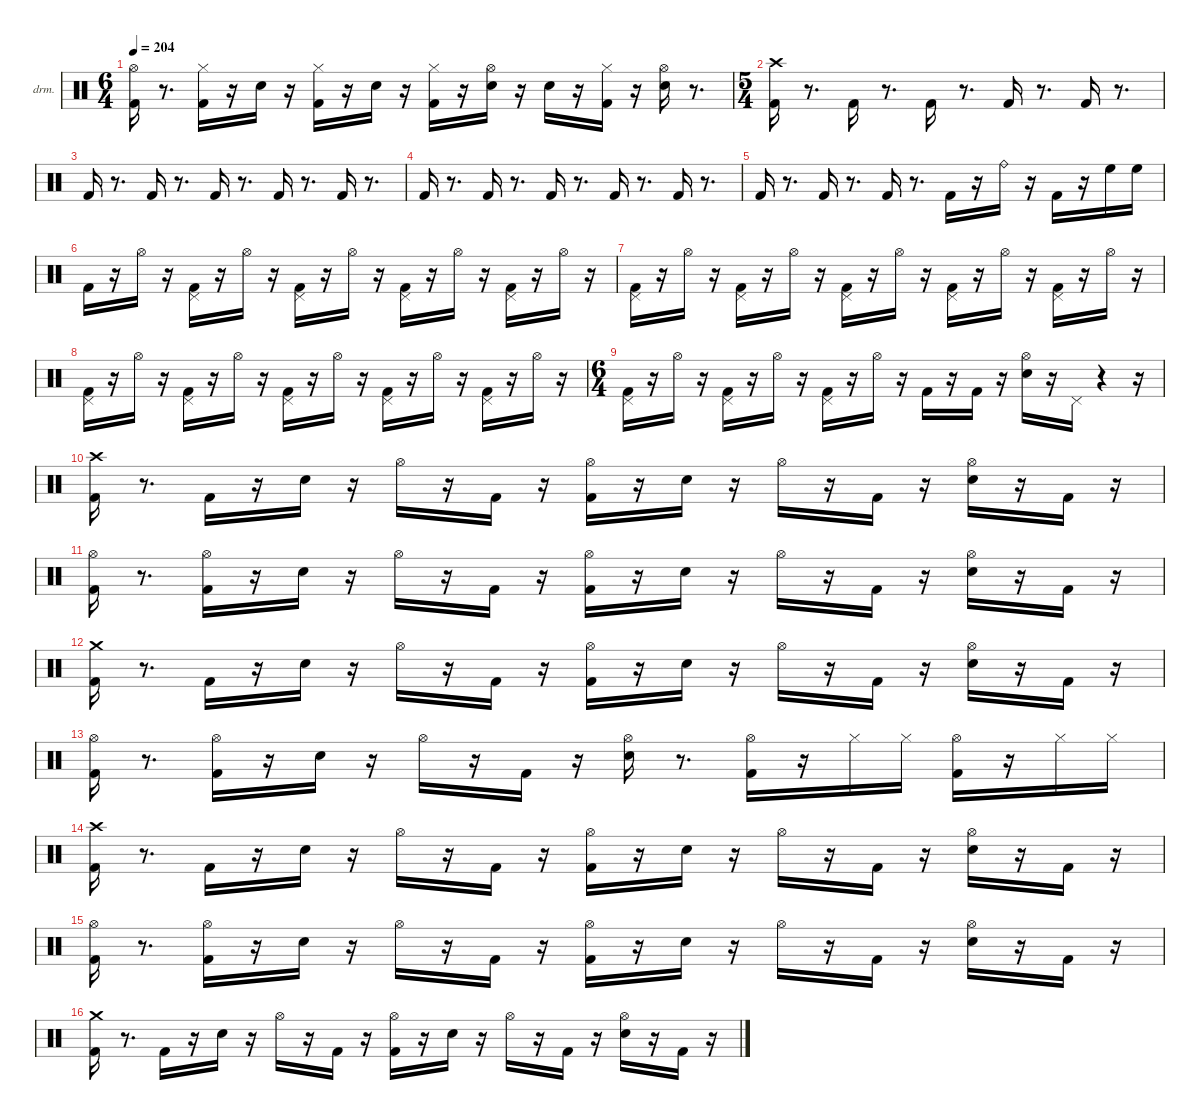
\hideDynamics
\bracketExtendMode nobrackets
\firstSystemTrackNameOrientation horizontal
\track ("drums" "drm.") {instrument percussion}
\staff {score}
\articulation defaults
\ts (6 4)
\tempo 204
\clef neutral
\ks aminor
("Kick (hit) 2" "Hi-Hat (open)"{acc #}).16{dy ff beam Down} r.8{d beam Down} ("Kick (hit) 2" "Hi-Hat (closed)"{acc #}).16{beam Down} r.16{beam Down} "Snare (hit) 2".16{dy f beam Down} r.16{beam Down} ("Kick (hit) 2" "Hi-Hat (closed)"{acc #}).16{dy ff beam Down} r.16{beam Down} "Snare (hit) 2".16{beam Down} r.16{beam Down} ("Kick (hit) 2" "Hi-Hat (closed)"{acc #}).16{beam Down} r.16{beam Down} ("Snare (hit) 2" "Hi-Hat (open)"{acc #}).16{beam Down} r.16{beam Down} "Snare (hit) 2".16{dy mf beam Down} r.16{beam Down} ("Kick (hit) 2" "Hi-Hat (closed)"{acc #}).16{dy ff beam Down} r.16{beam Down} ("Snare (hit) 2" "Hi-Hat (open)"{acc #}).16{beam Down} r.8{d beam Down} |
\ts (5 4)
("Kick (hit) 2" "Crash high (hit)"{acc #}).16{dy fff beam Down} r.8{d beam Down} "Kick (hit) 2".16{dy mp beam Down} r.8{d beam Down} "Kick (hit) 2".16{dy mf beam Down} r.8{d beam Down} "Kick (hit) 2".16{dy f beam Up} r.8{d beam Up} "Kick (hit) 2".16{dy p beam Up} r.8{d beam Down} |
"Kick (hit) 2".16{dy fff beam Up} r.8{d beam Up} "Kick (hit) 2".16{dy mp beam Up} r.8{d beam Up} "Kick (hit) 2".16{dy mf beam Up} r.8{d beam Down} "Kick (hit) 2".16{dy f beam Up} r.8{d beam Up} "Kick (hit) 2".16{dy p beam Up} r.8{d beam Down} |
"Kick (hit) 2".16{dy fff beam Up} r.8{d beam Up} "Kick (hit) 2".16{dy mp beam Up} r.8{d beam Up} "Kick (hit) 2".16{dy mf beam Up} r.8{d beam Down} "Kick (hit) 2".16{dy f beam Up} r.8{d beam Up} "Kick (hit) 2".16{dy p beam Up} r.8{d beam Down} |
"Kick (hit) 2".16{dy fff beam Up} r.8{d beam Up} "Kick (hit) 2".16{dy mp beam Up} r.8{d beam Up} "Kick (hit) 2".16{dy mf beam Up} r.8{d beam Down} "Kick (hit) 2".16{dy f beam Down} r.16{beam Down} "Ride (bell)".16{dy ff beam Down} r.16{beam Down} "Kick (hit) 2".16{dy p beam Down} r.16{beam Down} "High Floor Tom (hit)".16{dy ff beam Down} "High Floor Tom (hit)".16{dy mf beam Down} |
"Kick (hit) 2".16{dy fff beam Down} r.16{beam Down} "Hi-Hat (open)"{acc #}.16{beam Down} r.16{beam Down} ("Kick (hit) 2" "Pedal Hi-Hat (hit)"{acc #}).16{dy mp beam Down} r.16{beam Down} "Hi-Hat (open)"{acc #}.16{dy fff beam Down} r.16{beam Down} ("Kick (hit) 2" "Pedal Hi-Hat (hit)"{acc #}).16{dy mf beam Down} r.16{beam Down} "Hi-Hat (open)"{acc #}.16{dy fff beam Down} r.16{beam Down} ("Kick (hit) 2" "Pedal Hi-Hat (hit)"{acc #}).16{dy f beam Down} r.16{beam Down} "Hi-Hat (open)"{acc #}.16{dy fff beam Down} r.16{beam Down} ("Kick (hit) 2" "Pedal Hi-Hat (hit)"{acc #}).16{dy p beam Down} r.16{beam Down} "Hi-Hat (open)"{acc #}.16{dy fff beam Down} r.16{beam Down} |
("Kick (hit) 2" "Pedal Hi-Hat (hit)"{acc #}).16{beam Down} r.16{beam Down} "Hi-Hat (open)"{acc #}.16{beam Down} r.16{beam Down} ("Kick (hit) 2" "Pedal Hi-Hat (hit)"{acc #}).16{dy mp beam Down} r.16{beam Down} "Hi-Hat (open)"{acc #}.16{dy fff beam Down} r.16{beam Down} ("Kick (hit) 2" "Pedal Hi-Hat (hit)"{acc #}).16{dy mf beam Down} r.16{beam Down} "Hi-Hat (open)"{acc #}.16{dy fff beam Down} r.16{beam Down} ("Kick (hit) 2" "Pedal Hi-Hat (hit)"{acc #}).16{dy f beam Down} r.16{beam Down} "Hi-Hat (open)"{acc #}.16{dy fff beam Down} r.16{beam Down} ("Kick (hit) 2" "Pedal Hi-Hat (hit)"{acc #}).16{dy p beam Down} r.16{beam Down} "Hi-Hat (open)"{acc #}.16{dy fff beam Down} r.16{beam Down} |
("Kick (hit) 2" "Pedal Hi-Hat (hit)"{acc #}).16{beam Down} r.16{beam Down} "Hi-Hat (open)"{acc #}.16{beam Down} r.16{beam Down} ("Kick (hit) 2" "Pedal Hi-Hat (hit)"{acc #}).16{dy mp beam Down} r.16{beam Down} "Hi-Hat (open)"{acc #}.16{dy fff beam Down} r.16{beam Down} ("Kick (hit) 2" "Pedal Hi-Hat (hit)"{acc #}).16{dy mf beam Down} r.16{beam Down} "Hi-Hat (open)"{acc #}.16{dy fff beam Down} r.16{beam Down} ("Kick (hit) 2" "Pedal Hi-Hat (hit)"{acc #}).16{dy f beam Down} r.16{beam Down} "Hi-Hat (open)"{acc #}.16{dy fff beam Down} r.16{beam Down} ("Kick (hit) 2" "Pedal Hi-Hat (hit)"{acc #}).16{dy p beam Down} r.16{beam Down} "Hi-Hat (open)"{acc #}.16{dy fff beam Down} r.16{beam Down} |
\ts (6 4)
("Kick (hit) 2" "Pedal Hi-Hat (hit)"{acc #}).16{beam Down} r.16{beam Down} "Hi-Hat (open)"{acc #}.16{beam Down} r.16{beam Down} ("Kick (hit) 2" "Pedal Hi-Hat (hit)"{acc #}).16{dy mp beam Down} r.16{beam Down} "Hi-Hat (open)"{acc #}.16{dy fff beam Down} r.16{beam Down} ("Kick (hit) 2" "Pedal Hi-Hat (hit)"{acc #}).16{dy mf beam Down} r.16{beam Down} "Hi-Hat (open)"{acc #}.16{dy fff beam Down} r.16{beam Down} "Kick (hit) 2".16{dy mf beam Down} r.16{beam Down} "Kick (hit) 2".16{dy ff beam Down} r.16{beam Down} ("Snare (hit) 2" "Hi-Hat (open)"{acc #}).16{dy fff beam Down} r.16{beam Down} "Pedal Hi-Hat (hit)"{acc #}.16{dy ff beam Down} r.4{beam Down} r.16{beam Down} |
("Kick (hit) 2" "Crash high (hit)"{acc #}).16{dy fff beam Down} r.8{d beam Down} "Kick (hit) 2".16{dy f beam Down} r.16{beam Down} "Snare (hit) 2".16{dy ff beam Down} r.16{beam Down} "Hi-Hat (open)"{acc #}.16{dy f beam Down} r.16{beam Down} "Kick (hit) 2".16{dy mf beam Down} r.16{beam Down} ("Kick (hit) 2" "Hi-Hat (open)"{acc #}).16{dy f beam Down} r.16{beam Down} "Snare (hit) 2".16{dy ff beam Down} r.16{beam Down} "Hi-Hat (open)"{acc #}.16{dy mf beam Down} r.16{beam Down} "Kick (hit) 2".16{dy ff beam Down} r.16{beam Down} ("Snare (hit) 2" "Hi-Hat (open)"{acc #}).16{beam Down} r.16{beam Down} "Kick (hit) 2".16{dy mf beam Down} r.16{beam Down} |
("Kick (hit) 2" "Hi-Hat (open)"{acc #}).16{dy fff beam Down} r.8{d beam Down} ("Kick (hit) 2" "Hi-Hat (open)"{acc #}).16{dy ff beam Down} r.16{beam Down} "Snare (hit) 2".16{beam Down} r.16{beam Down} "Hi-Hat (open)"{acc #}.16{dy f beam Down} r.16{beam Down} "Kick (hit) 2".16{beam Down} r.16{beam Down} ("Kick (hit) 2" "Hi-Hat (open)"{acc #}).16{dy ff beam Down} r.16{beam Down} "Snare (hit) 2".16{beam Down} r.16{beam Down} "Hi-Hat (open)"{acc #}.16{dy mf beam Down} r.16{beam Down} "Kick (hit) 2".16{dy ff beam Down} r.16{beam Down} ("Snare (hit) 2" "Hi-Hat (open)"{acc #}).16{beam Down} r.16{beam Down} "Kick (hit) 2".16{beam Down} r.16{beam Down} |
("Kick (hit) 2" "Crash medium (hit)").16{dy fff beam Down} r.8{d beam Down} "Kick (hit) 2".16{dy f beam Down} r.16{beam Down} "Snare (hit) 2".16{dy ff beam Down} r.16{beam Down} "Hi-Hat (open)"{acc #}.16{dy f beam Down} r.16{beam Down} "Kick (hit) 2".16{dy mf beam Down} r.16{beam Down} ("Kick (hit) 2" "Hi-Hat (open)"{acc #}).16{dy f beam Down} r.16{beam Down} "Snare (hit) 2".16{dy ff beam Down} r.16{beam Down} "Hi-Hat (open)"{acc #}.16{dy mf beam Down} r.16{beam Down} "Kick (hit) 2".16{dy ff beam Down} r.16{beam Down} ("Snare (hit) 2" "Hi-Hat (open)"{acc #}).16{beam Down} r.16{beam Down} "Kick (hit) 2".16{dy mf beam Down} r.16{beam Down} |
("Kick (hit) 2" "Hi-Hat (open)"{acc #}).16{dy fff beam Down} r.8{d beam Down} ("Kick (hit) 2" "Hi-Hat (open)"{acc #}).16{dy ff beam Down} r.16{beam Down} "Snare (hit) 2".16{beam Down} r.16{beam Down} "Hi-Hat (open)"{acc #}.16{dy f beam Down} r.16{beam Down} "Kick (hit) 2".16{beam Down} r.16{beam Down} ("Snare (hit) 2" "Hi-Hat (open)"{acc #}).16{dy fff beam Down} r.8{d beam Down} ("Kick (hit) 2" "Hi-Hat (open)"{acc #}).16{dy ff beam Down} r.16{beam Down} "Hi-Hat (closed)"{acc #}.16{beam Down} "Hi-Hat (closed)"{acc #}.16{dy mf beam Down} ("Kick (hit) 2" "Hi-Hat (open)"{acc #}).16{dy ff beam Down} r.16{beam Down} "Hi-Hat (closed)"{acc #}.16{beam Down} "Hi-Hat (closed)"{acc #}.16{dy mf beam Down} |
("Kick (hit) 2" "Crash high (hit)"{acc #}).16{dy fff beam Down} r.8{d beam Down} "Kick (hit) 2".16{dy f beam Down} r.16{beam Down} "Snare (hit) 2".16{dy ff beam Down} r.16{beam Down} "Hi-Hat (open)"{acc #}.16{dy f beam Down} r.16{beam Down} "Kick (hit) 2".16{dy mf beam Down} r.16{beam Down} ("Kick (hit) 2" "Hi-Hat (open)"{acc #}).16{dy f beam Down} r.16{beam Down} "Snare (hit) 2".16{dy ff beam Down} r.16{beam Down} "Hi-Hat (open)"{acc #}.16{dy mf beam Down} r.16{beam Down} "Kick (hit) 2".16{dy ff beam Down} r.16{beam Down} ("Snare (hit) 2" "Hi-Hat (open)"{acc #}).16{beam Down} r.16{beam Down} "Kick (hit) 2".16{dy mf beam Down} r.16{beam Down} |
("Kick (hit) 2" "Hi-Hat (open)"{acc #}).16{dy fff beam Down} r.8{d beam Down} ("Kick (hit) 2" "Hi-Hat (open)"{acc #}).16{dy ff beam Down} r.16{beam Down} "Snare (hit) 2".16{beam Down} r.16{beam Down} "Hi-Hat (open)"{acc #}.16{dy f beam Down} r.16{beam Down} "Kick (hit) 2".16{beam Down} r.16{beam Down} ("Kick (hit) 2" "Hi-Hat (open)"{acc #}).16{dy ff beam Down} r.16{beam Down} "Snare (hit) 2".16{beam Down} r.16{beam Down} "Hi-Hat (open)"{acc #}.16{dy mf beam Down} r.16{beam Down} "Kick (hit) 2".16{dy ff beam Down} r.16{beam Down} ("Snare (hit) 2" "Hi-Hat (open)"{acc #}).16{beam Down} r.16{beam Down} "Kick (hit) 2".16{beam Down} r.16{beam Down} |
("Kick (hit) 2" "Crash medium (hit)").16{dy fff beam Down} r.8{d beam Down} "Kick (hit) 2".16{dy f beam Down} r.16{beam Down} "Snare (hit) 2".16{dy ff beam Down} r.16{beam Down} "Hi-Hat (open)"{acc #}.16{dy f beam Down} r.16{beam Down} "Kick (hit) 2".16{dy mf beam Down} r.16{beam Down} ("Kick (hit) 2" "Hi-Hat (open)"{acc #}).16{dy f beam Down} r.16{beam Down} "Snare (hit) 2".16{dy ff beam Down} r.16{beam Down} "Hi-Hat (open)"{acc #}.16{dy mf beam Down} r.16{beam Down} "Kick (hit) 2".16{dy ff beam Down} r.16{beam Down} ("Snare (hit) 2" "Hi-Hat (open)"{acc #}).16{beam Down} r.16{beam Down} "Kick (hit) 2".16{dy mf beam Down} r.16{beam Down}
